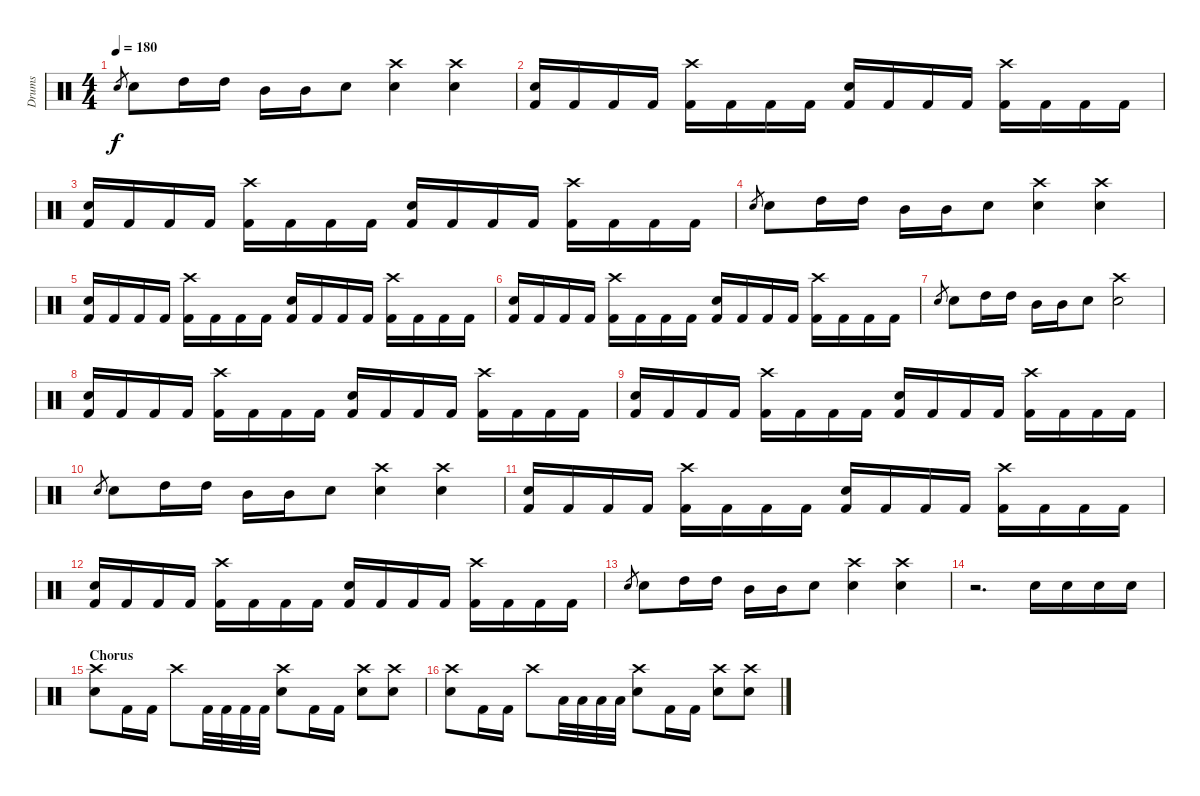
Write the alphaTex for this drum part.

\track ("Drums" "Drums") {instrument percussion}
\staff {score}
\articulation defaults
\ts (4 4)
\tempo 180
\clef neutral
\ks c "Electric Snare (hit)".8{gr dy f} "Electric Snare (hit)".8 "High Tom (hit)".16 "High Tom (hit)".16 "Mid Tom (hit)".16 "Mid Tom (hit)".16 "Electric Snare (hit)".8
("Crash high (hit)" "Electric Snare (hit)").4 ("Crash high (hit)" "Electric Snare (hit)").4 |
("Kick (hit) 2" "Electric Snare (hit)").16 "Kick (hit) 2".16 "Kick (hit) 2".16 "Kick (hit) 2".16 ("Kick (hit) 2" "Crash high (hit)").16 "Kick (hit) 2".16 "Kick (hit) 2".16 "Kick (hit) 2".16 ("Kick (hit) 2" "Electric Snare (hit)").16 "Kick (hit) 2".16 "Kick (hit) 2".16 "Kick (hit) 2".16 ("Kick (hit) 2" "Crash high (hit)").16 "Kick (hit) 2".16 "Kick (hit) 2".16 "Kick (hit) 2".16 |
("Kick (hit) 2" "Electric Snare (hit)").16 "Kick (hit) 2".16 "Kick (hit) 2".16 "Kick (hit) 2".16 ("Kick (hit) 2" "Crash high (hit)").16 "Kick (hit) 2".16 "Kick (hit) 2".16 "Kick (hit) 2".16 ("Kick (hit) 2" "Electric Snare (hit)").16 "Kick (hit) 2".16 "Kick (hit) 2".16 "Kick (hit) 2".16 ("Kick (hit) 2" "Crash high (hit)").16 "Kick (hit) 2".16 "Kick (hit) 2".16 "Kick (hit) 2".16 |
"Electric Snare (hit)".8{gr} "Electric Snare (hit)".8 "High Tom (hit)".16 "High Tom (hit)".16 "Mid Tom (hit)".16 "Mid Tom (hit)".16 "Electric Snare (hit)".8 ("Crash high (hit)" "Electric Snare (hit)").4 ("Crash high (hit)" "Electric Snare (hit)").4 |
("Kick (hit) 2" "Electric Snare (hit)").16 "Kick (hit) 2".16 "Kick (hit) 2".16 "Kick (hit) 2".16 ("Kick (hit) 2" "Crash high (hit)").16 "Kick (hit) 2".16 "Kick (hit) 2".16 "Kick (hit) 2".16 ("Kick (hit) 2" "Electric Snare (hit)").16 "Kick (hit) 2".16 "Kick (hit) 2".16 "Kick (hit) 2".16 ("Kick (hit) 2" "Crash high (hit)").16 "Kick (hit) 2".16 "Kick (hit) 2".16 "Kick (hit) 2".16 |
("Kick (hit) 2" "Electric Snare (hit)").16 "Kick (hit) 2".16 "Kick (hit) 2".16 "Kick (hit) 2".16 ("Kick (hit) 2" "Crash high (hit)").16 "Kick (hit) 2".16 "Kick (hit) 2".16 "Kick (hit) 2".16 ("Kick (hit) 2" "Electric Snare (hit)").16 "Kick (hit) 2".16 "Kick (hit) 2".16 "Kick (hit) 2".16 ("Kick (hit) 2" "Crash high (hit)").16 "Kick (hit) 2".16 "Kick (hit) 2".16 "Kick (hit) 2".16 |
"Electric Snare (hit)".8{gr} "Electric Snare (hit)".8 "High Tom (hit)".16 "High Tom (hit)".16 "Mid Tom (hit)".16 "Mid Tom (hit)".16 "Electric Snare (hit)".8 ("Crash high (hit)" "Electric Snare (hit)").2 |
("Kick (hit) 2" "Electric Snare (hit)").16 "Kick (hit) 2".16 "Kick (hit) 2".16 "Kick (hit) 2".16 ("Kick (hit) 2" "Crash high (hit)").16 "Kick (hit) 2".16 "Kick (hit) 2".16 "Kick (hit) 2".16 ("Kick (hit) 2" "Electric Snare (hit)").16 "Kick (hit) 2".16 "Kick (hit) 2".16 "Kick (hit) 2".16 ("Kick (hit) 2" "Crash high (hit)").16 "Kick (hit) 2".16 "Kick (hit) 2".16 "Kick (hit) 2".16 |
("Kick (hit) 2" "Electric Snare (hit)").16 "Kick (hit) 2".16 "Kick (hit) 2".16 "Kick (hit) 2".16 ("Kick (hit) 2" "Crash high (hit)").16 "Kick (hit) 2".16 "Kick (hit) 2".16 "Kick (hit) 2".16 ("Kick (hit) 2" "Electric Snare (hit)").16 "Kick (hit) 2".16 "Kick (hit) 2".16 "Kick (hit) 2".16 ("Kick (hit) 2" "Crash high (hit)").16 "Kick (hit) 2".16 "Kick (hit) 2".16 "Kick (hit) 2".16 |
"Electric Snare (hit)".8{gr} "Electric Snare (hit)".8 "High Tom (hit)".16 "High Tom (hit)".16 "Mid Tom (hit)".16 "Mid Tom (hit)".16 "Electric Snare (hit)".8 ("Crash high (hit)" "Electric Snare (hit)").4 ("Crash high (hit)" "Electric Snare (hit)").4 |
("Kick (hit) 2" "Electric Snare (hit)").16 "Kick (hit) 2".16 "Kick (hit) 2".16 "Kick (hit) 2".16 ("Kick (hit) 2" "Crash high (hit)").16 "Kick (hit) 2".16 "Kick (hit) 2".16 "Kick (hit) 2".16 ("Kick (hit) 2" "Electric Snare (hit)").16 "Kick (hit) 2".16 "Kick (hit) 2".16 "Kick (hit) 2".16 ("Kick (hit) 2" "Crash high (hit)").16 "Kick (hit) 2".16 "Kick (hit) 2".16 "Kick (hit) 2".16 |
("Kick (hit) 2" "Electric Snare (hit)").16 "Kick (hit) 2".16 "Kick (hit) 2".16 "Kick (hit) 2".16 ("Kick (hit) 2" "Crash high (hit)").16 "Kick (hit) 2".16 "Kick (hit) 2".16 "Kick (hit) 2".16 ("Kick (hit) 2" "Electric Snare (hit)").16 "Kick (hit) 2".16 "Kick (hit) 2".16 "Kick (hit) 2".16 ("Kick (hit) 2" "Crash high (hit)").16 "Kick (hit) 2".16 "Kick (hit) 2".16 "Kick (hit) 2".16 |
"Electric Snare (hit)".8{gr} "Electric Snare (hit)".8 "High Tom (hit)".16 "High Tom (hit)".16 "Mid Tom (hit)".16 "Mid Tom (hit)".16 "Electric Snare (hit)".8 ("Crash high (hit)" "Electric Snare (hit)").4 ("Crash high (hit)" "Electric Snare (hit)").4 |
r.2{d} "Electric Snare (hit)".16 "Electric Snare (hit)".16 "Electric Snare (hit)".16 "Electric Snare (hit)".16 |
\section ("" "Chorus")
("Crash high (hit)" "Electric Snare (hit)").8 "Kick (hit) 2".16 "Kick (hit) 2".16 "Crash high (hit)".8 "Kick (hit) 2".32 "Kick (hit) 2".32 "Kick (hit) 2".32 "Kick (hit) 2".32 ("Crash high (hit)" "Electric Snare (hit)").8 "Kick (hit) 2".16 "Kick (hit) 2".16 ("Crash high (hit)" "Electric Snare (hit)").8 ("Crash high (hit)" "Electric Snare (hit)").8 |
("Crash high (hit)" "Electric Snare (hit)").8 "Kick (hit) 2".16 "Kick (hit) 2".16 "Crash high (hit)".8 "Low Tom (hit)".32 "Low Tom (hit)".32 "Low Tom (hit)".32 "Low Tom (hit)".32 ("Crash high (hit)" "Electric Snare (hit)").8 "Kick (hit) 2".16 "Kick (hit) 2".16 ("Crash high (hit)" "Electric Snare (hit)").8 ("Crash high (hit)" "Electric Snare (hit)").8
